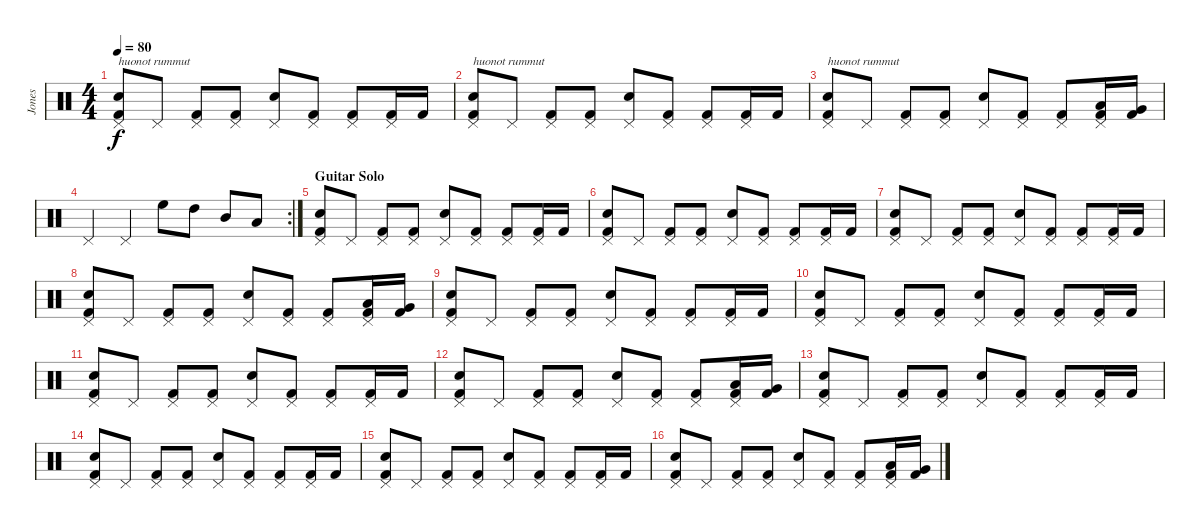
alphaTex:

\track ("Jones" "Jones") {instrument percussion}
\staff {score}
\articulation defaults
\ts (4 4)
\tempo 80
\clef neutral
\ks c
("Pedal Hi-Hat (hit)" "Snare (hit) 2" "Kick (hit) 2").8{txt "huonot rummut" dy f} "Pedal Hi-Hat (hit)".8 ("Pedal Hi-Hat (hit)" "Kick (hit) 2").8 ("Pedal Hi-Hat (hit)" "Kick (hit) 2").8 ("Pedal Hi-Hat (hit)" "Snare (hit) 2").8 ("Pedal Hi-Hat (hit)" "Kick (hit) 2").8 ("Pedal Hi-Hat (hit)" "Kick (hit) 2").8 ("Pedal Hi-Hat (hit)" "Kick (hit) 2").16 "Kick (hit) 2".16 |
("Pedal Hi-Hat (hit)" "Snare (hit) 2" "Kick (hit) 2").8{txt "huonot rummut"} "Pedal Hi-Hat (hit)".8 ("Pedal Hi-Hat (hit)" "Kick (hit) 2").8 ("Pedal Hi-Hat (hit)" "Kick (hit) 2").8 ("Pedal Hi-Hat (hit)" "Snare (hit) 2").8 ("Pedal Hi-Hat (hit)" "Kick (hit) 2").8 ("Pedal Hi-Hat (hit)" "Kick (hit) 2").8 ("Pedal Hi-Hat (hit)" "Kick (hit) 2").16 "Kick (hit) 2".16 |
("Pedal Hi-Hat (hit)" "Snare (hit) 2" "Kick (hit) 2").8{txt "huonot rummut"} "Pedal Hi-Hat (hit)".8 ("Pedal Hi-Hat (hit)" "Kick (hit) 2").8 ("Pedal Hi-Hat (hit)" "Kick (hit) 2").8 ("Pedal Hi-Hat (hit)" "Snare (hit) 2").8 ("Pedal Hi-Hat (hit)" "Kick (hit) 2").8 ("Pedal Hi-Hat (hit)" "Kick (hit) 2").8 ("Pedal Hi-Hat (hit)" "Low Tom (hit)" "Kick (hit) 2").16 ("Very Low Tom (hit)" "Kick (hit) 2").16 |
\rc 2 "Pedal Hi-Hat (hit)".4 "Pedal Hi-Hat (hit)".4 "High Floor Tom (hit)".8 "High Tom (hit)".8 "Mid Tom (hit)".8 "Low Tom (hit)".8
|
\section ("" "Guitar Solo")
("Pedal Hi-Hat (hit)" "Snare (hit) 2" "Kick (hit) 2").8 "Pedal Hi-Hat (hit)".8 ("Pedal Hi-Hat (hit)" "Kick (hit) 2").8 ("Pedal Hi-Hat (hit)" "Kick (hit) 2").8 ("Pedal Hi-Hat (hit)" "Snare (hit) 2").8 ("Pedal Hi-Hat (hit)" "Kick (hit) 2").8 ("Pedal Hi-Hat (hit)" "Kick (hit) 2").8 ("Pedal Hi-Hat (hit)" "Kick (hit) 2").16 "Kick (hit) 2".16 |
("Pedal Hi-Hat (hit)" "Snare (hit) 2" "Kick (hit) 2").8 "Pedal Hi-Hat (hit)".8 ("Pedal Hi-Hat (hit)" "Kick (hit) 2").8 ("Pedal Hi-Hat (hit)" "Kick (hit) 2").8 ("Pedal Hi-Hat (hit)" "Snare (hit) 2").8 ("Pedal Hi-Hat (hit)" "Kick (hit) 2").8 ("Pedal Hi-Hat (hit)" "Kick (hit) 2").8 ("Pedal Hi-Hat (hit)" "Kick (hit) 2").16 "Kick (hit) 2".16 |
("Pedal Hi-Hat (hit)" "Snare (hit) 2" "Kick (hit) 2").8 "Pedal Hi-Hat (hit)".8 ("Pedal Hi-Hat (hit)" "Kick (hit) 2").8 ("Pedal Hi-Hat (hit)" "Kick (hit) 2").8 ("Pedal Hi-Hat (hit)" "Snare (hit) 2").8 ("Pedal Hi-Hat (hit)" "Kick (hit) 2").8 ("Pedal Hi-Hat (hit)" "Kick (hit) 2").8 ("Pedal Hi-Hat (hit)" "Kick (hit) 2").16 "Kick (hit) 2".16 |
("Pedal Hi-Hat (hit)" "Snare (hit) 2" "Kick (hit) 2").8 "Pedal Hi-Hat (hit)".8 ("Pedal Hi-Hat (hit)" "Kick (hit) 2").8 ("Pedal Hi-Hat (hit)" "Kick (hit) 2").8 ("Pedal Hi-Hat (hit)" "Snare (hit) 2").8 ("Pedal Hi-Hat (hit)" "Kick (hit) 2").8 ("Pedal Hi-Hat (hit)" "Kick (hit) 2").8 ("Pedal Hi-Hat (hit)" "Low Tom (hit)" "Kick (hit) 2").16 ("Very Low Tom (hit)" "Kick (hit) 2").16 |
("Pedal Hi-Hat (hit)" "Snare (hit) 2" "Kick (hit) 2").8 "Pedal Hi-Hat (hit)".8 ("Pedal Hi-Hat (hit)" "Kick (hit) 2").8 ("Pedal Hi-Hat (hit)" "Kick (hit) 2").8 ("Pedal Hi-Hat (hit)" "Snare (hit) 2").8 ("Pedal Hi-Hat (hit)" "Kick (hit) 2").8 ("Pedal Hi-Hat (hit)" "Kick (hit) 2").8 ("Pedal Hi-Hat (hit)" "Kick (hit) 2").16 "Kick (hit) 2".16 |
("Pedal Hi-Hat (hit)" "Snare (hit) 2" "Kick (hit) 2").8 "Pedal Hi-Hat (hit)".8 ("Pedal Hi-Hat (hit)" "Kick (hit) 2").8 ("Pedal Hi-Hat (hit)" "Kick (hit) 2").8 ("Pedal Hi-Hat (hit)" "Snare (hit) 2").8 ("Pedal Hi-Hat (hit)" "Kick (hit) 2").8 ("Pedal Hi-Hat (hit)" "Kick (hit) 2").8 ("Pedal Hi-Hat (hit)" "Kick (hit) 2").16 "Kick (hit) 2".16 |
("Pedal Hi-Hat (hit)" "Snare (hit) 2" "Kick (hit) 2").8 "Pedal Hi-Hat (hit)".8 ("Pedal Hi-Hat (hit)" "Kick (hit) 2").8 ("Pedal Hi-Hat (hit)" "Kick (hit) 2").8 ("Pedal Hi-Hat (hit)" "Snare (hit) 2").8 ("Pedal Hi-Hat (hit)" "Kick (hit) 2").8 ("Pedal Hi-Hat (hit)" "Kick (hit) 2").8 ("Pedal Hi-Hat (hit)" "Kick (hit) 2").16 "Kick (hit) 2".16 |
("Pedal Hi-Hat (hit)" "Snare (hit) 2" "Kick (hit) 2").8 "Pedal Hi-Hat (hit)".8 ("Pedal Hi-Hat (hit)" "Kick (hit) 2").8 ("Pedal Hi-Hat (hit)" "Kick (hit) 2").8 ("Pedal Hi-Hat (hit)" "Snare (hit) 2").8 ("Pedal Hi-Hat (hit)" "Kick (hit) 2").8 ("Pedal Hi-Hat (hit)" "Kick (hit) 2").8 ("Pedal Hi-Hat (hit)" "Low Tom (hit)" "Kick (hit) 2").16 ("Very Low Tom (hit)" "Kick (hit) 2").16 |
("Pedal Hi-Hat (hit)" "Snare (hit) 2" "Kick (hit) 2").8 "Pedal Hi-Hat (hit)".8 ("Pedal Hi-Hat (hit)" "Kick (hit) 2").8 ("Pedal Hi-Hat (hit)" "Kick (hit) 2").8 ("Pedal Hi-Hat (hit)" "Snare (hit) 2").8 ("Pedal Hi-Hat (hit)" "Kick (hit) 2").8 ("Pedal Hi-Hat (hit)" "Kick (hit) 2").8 ("Pedal Hi-Hat (hit)" "Kick (hit) 2").16 "Kick (hit) 2".16 |
("Pedal Hi-Hat (hit)" "Snare (hit) 2" "Kick (hit) 2").8 "Pedal Hi-Hat (hit)".8 ("Pedal Hi-Hat (hit)" "Kick (hit) 2").8 ("Pedal Hi-Hat (hit)" "Kick (hit) 2").8 ("Pedal Hi-Hat (hit)" "Snare (hit) 2").8 ("Pedal Hi-Hat (hit)" "Kick (hit) 2").8 ("Pedal Hi-Hat (hit)" "Kick (hit) 2").8 ("Pedal Hi-Hat (hit)" "Kick (hit) 2").16 "Kick (hit) 2".16 |
("Pedal Hi-Hat (hit)" "Snare (hit) 2" "Kick (hit) 2").8 "Pedal Hi-Hat (hit)".8 ("Pedal Hi-Hat (hit)" "Kick (hit) 2").8 ("Pedal Hi-Hat (hit)" "Kick (hit) 2").8 ("Pedal Hi-Hat (hit)" "Snare (hit) 2").8 ("Pedal Hi-Hat (hit)" "Kick (hit) 2").8 ("Pedal Hi-Hat (hit)" "Kick (hit) 2").8 ("Pedal Hi-Hat (hit)" "Kick (hit) 2").16 "Kick (hit) 2".16 |
("Pedal Hi-Hat (hit)" "Snare (hit) 2" "Kick (hit) 2").8 "Pedal Hi-Hat (hit)".8 ("Pedal Hi-Hat (hit)" "Kick (hit) 2").8 ("Pedal Hi-Hat (hit)" "Kick (hit) 2").8 ("Pedal Hi-Hat (hit)" "Snare (hit) 2").8 ("Pedal Hi-Hat (hit)" "Kick (hit) 2").8 ("Pedal Hi-Hat (hit)" "Kick (hit) 2").8 ("Pedal Hi-Hat (hit)" "Low Tom (hit)" "Kick (hit) 2").16 ("Very Low Tom (hit)" "Kick (hit) 2").16
